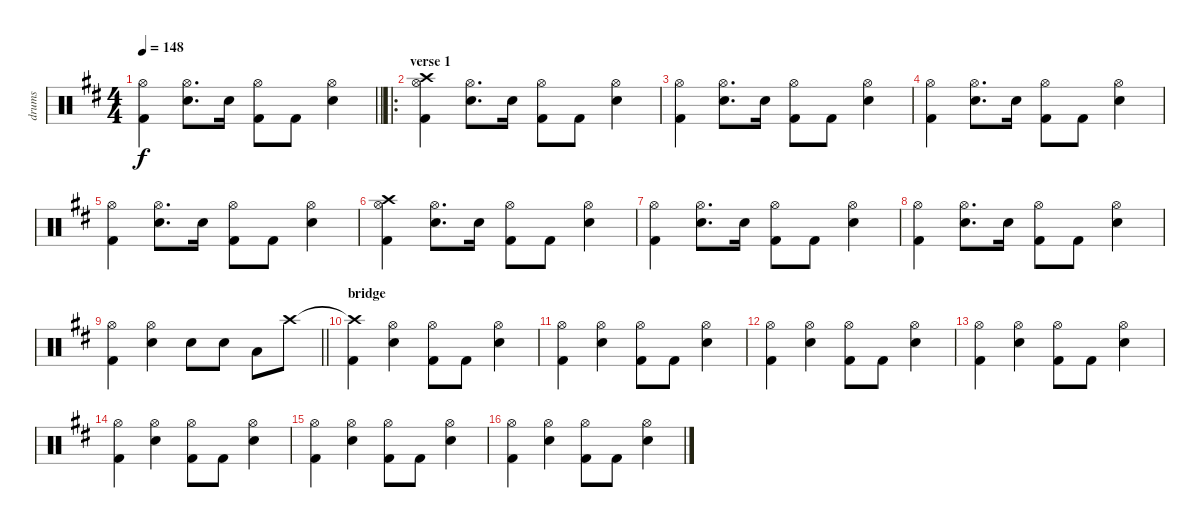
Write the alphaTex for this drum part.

\track ("drums" "drums") {instrument percussion}
\staff {score}
\articulation defaults
\ts (4 4)
\tempo 148
\clef neutral
\barLineRight lightlight
\ks d
("Hi-Hat (open)" "Kick (hit) 2").4{dy f} ("Hi-Hat (open)" "Electric Snare (hit)").8{d} "Electric Snare (hit)".16 ("Hi-Hat (open)" "Kick (hit) 2").8 "Kick (hit) 2".8 ("Hi-Hat (open)" "Electric Snare (hit)").4 |
\ro
\section ("" "verse 1")
("Hi-Hat (open)" "Kick (hit) 2" "Crash high (hit)").4 ("Hi-Hat (open)" "Electric Snare (hit)").8{d} "Electric Snare (hit)".16 ("Hi-Hat (open)" "Kick (hit) 2").8 "Kick (hit) 2".8 ("Hi-Hat (open)" "Electric Snare (hit)").4 |
("Hi-Hat (open)" "Kick (hit) 2").4 ("Hi-Hat (open)" "Electric Snare (hit)").8{d} "Electric Snare (hit)".16 ("Hi-Hat (open)" "Kick (hit) 2").8 "Kick (hit) 2".8 ("Hi-Hat (open)" "Electric Snare (hit)").4 |
("Hi-Hat (open)" "Kick (hit) 2").4 ("Hi-Hat (open)" "Electric Snare (hit)").8{d} "Electric Snare (hit)".16 ("Hi-Hat (open)" "Kick (hit) 2").8 "Kick (hit) 2".8 ("Hi-Hat (open)" "Electric Snare (hit)").4 |
("Hi-Hat (open)" "Kick (hit) 2").4 ("Hi-Hat (open)" "Electric Snare (hit)").8{d} "Electric Snare (hit)".16 ("Hi-Hat (open)" "Kick (hit) 2").8 "Kick (hit) 2".8 ("Hi-Hat (open)" "Electric Snare (hit)").4 |
("Hi-Hat (open)" "Kick (hit) 2" "Crash high (hit)").4 ("Hi-Hat (open)" "Electric Snare (hit)").8{d} "Electric Snare (hit)".16 ("Hi-Hat (open)" "Kick (hit) 2").8 "Kick (hit) 2".8 ("Hi-Hat (open)" "Electric Snare (hit)").4 |
("Hi-Hat (open)" "Kick (hit) 2").4 ("Hi-Hat (open)" "Electric Snare (hit)").8{d} "Electric Snare (hit)".16 ("Hi-Hat (open)" "Kick (hit) 2").8 "Kick (hit) 2".8 ("Hi-Hat (open)" "Electric Snare (hit)").4 |
("Hi-Hat (open)" "Kick (hit) 2").4 ("Hi-Hat (open)" "Electric Snare (hit)").8{d} "Electric Snare (hit)".16 ("Hi-Hat (open)" "Kick (hit) 2").8 "Kick (hit) 2".8 ("Hi-Hat (open)" "Electric Snare (hit)").4 |
\barLineRight lightlight
("Hi-Hat (open)" "Kick (hit) 2").4 ("Hi-Hat (open)" "Electric Snare (hit)").4 "Electric Snare (hit)".8 "Electric Snare (hit)".8 "Low Tom (hit)".8 "Crash high (hit)".8 |
\section ("" "bridge")
("Crash high (hit)"{t} "Kick (hit) 2").4 ("Hi-Hat (open)" "Electric Snare (hit)").4 ("Hi-Hat (open)" "Kick (hit) 2").8 "Kick (hit) 2".8 ("Hi-Hat (open)" "Electric Snare (hit)").4 |
("Hi-Hat (open)" "Kick (hit) 2").4 ("Hi-Hat (open)" "Electric Snare (hit)").4 ("Hi-Hat (open)" "Kick (hit) 2").8 "Kick (hit) 2".8 ("Hi-Hat (open)" "Electric Snare (hit)").4 |
("Hi-Hat (open)" "Kick (hit) 2").4 ("Hi-Hat (open)" "Electric Snare (hit)").4 ("Hi-Hat (open)" "Kick (hit) 2").8 "Kick (hit) 2".8 ("Hi-Hat (open)" "Electric Snare (hit)").4 |
("Hi-Hat (open)" "Kick (hit) 2").4 ("Hi-Hat (open)" "Electric Snare (hit)").4 ("Hi-Hat (open)" "Kick (hit) 2").8 "Kick (hit) 2".8 ("Hi-Hat (open)" "Electric Snare (hit)").4 |
("Hi-Hat (open)" "Kick (hit) 2").4 ("Hi-Hat (open)" "Electric Snare (hit)").4 ("Hi-Hat (open)" "Kick (hit) 2").8 "Kick (hit) 2".8 ("Hi-Hat (open)" "Electric Snare (hit)").4 |
("Hi-Hat (open)" "Kick (hit) 2").4 ("Hi-Hat (open)" "Electric Snare (hit)").4 ("Hi-Hat (open)" "Kick (hit) 2").8 "Kick (hit) 2".8 ("Hi-Hat (open)" "Electric Snare (hit)").4 |
("Hi-Hat (open)" "Kick (hit) 2").4 ("Hi-Hat (open)" "Electric Snare (hit)").4 ("Hi-Hat (open)" "Kick (hit) 2").8 "Kick (hit) 2".8 ("Hi-Hat (open)" "Electric Snare (hit)").4
